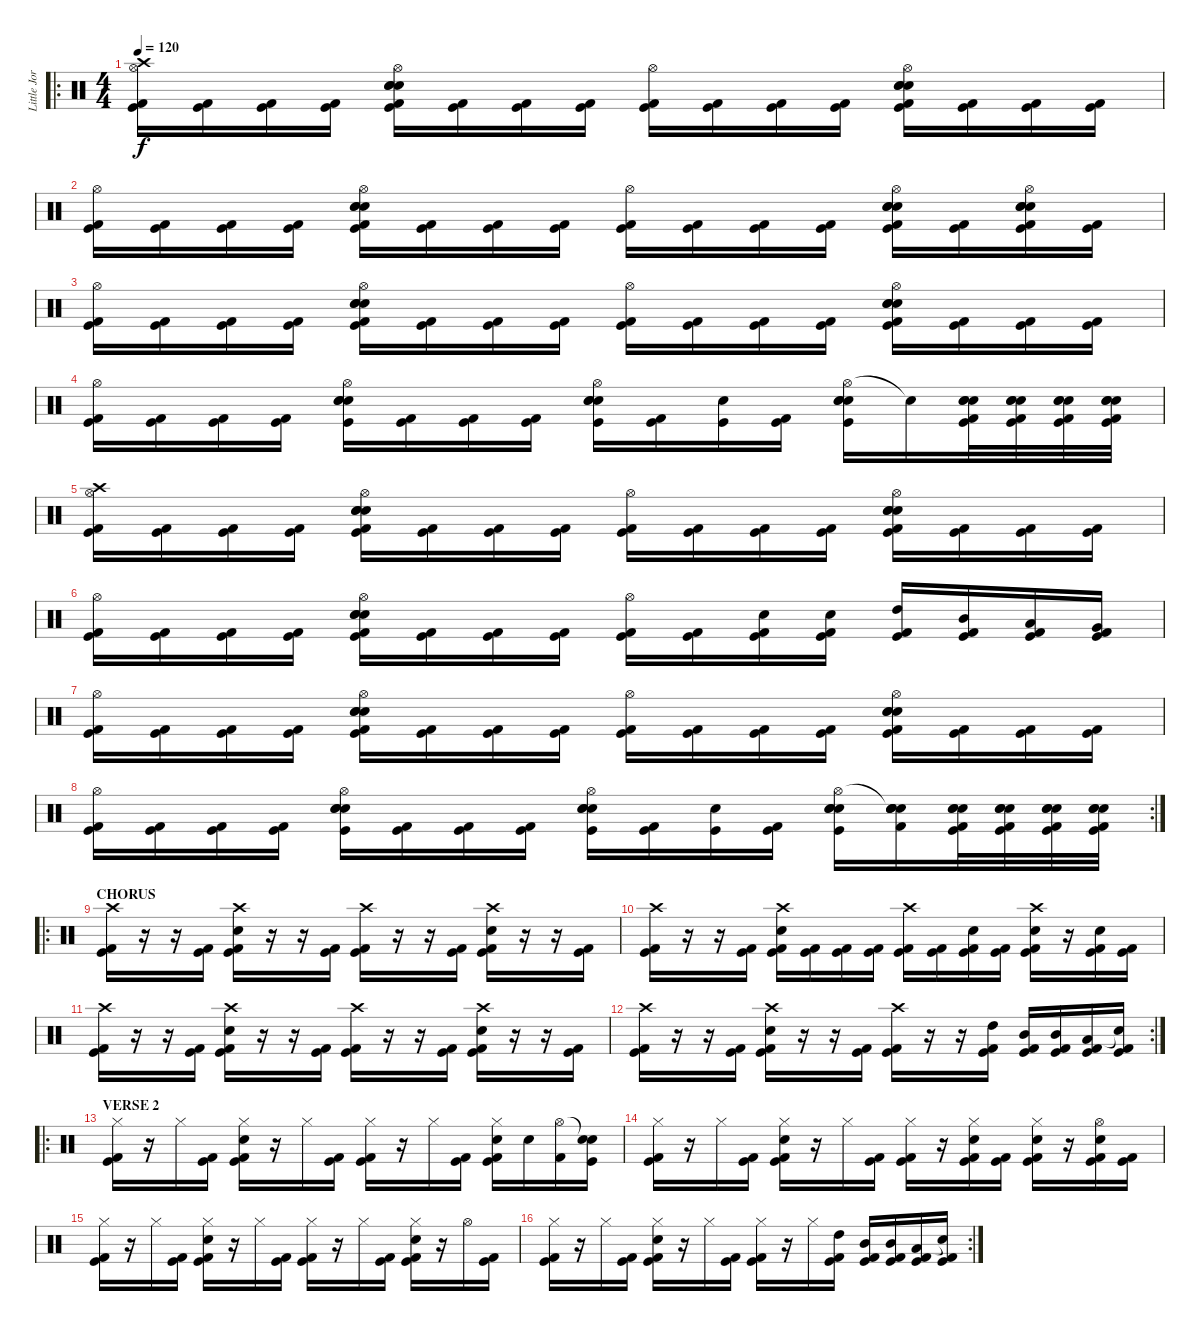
\track ("Little Jordison" "Little Jor") {instrument percussion}
\staff {score}
\articulation defaults
\ro
\ts (4 4)
\tempo 120
\clef neutral
\ks c
("Hi-Hat (open)" "Crash high (hit)" "Kick (hit)" "Kick (hit) 2").16{dy f} ("Kick (hit)" "Kick (hit) 2").16 ("Kick (hit)" "Kick (hit) 2").16 ("Kick (hit)" "Kick (hit) 2").16 ("Hi-Hat (open)" "Electric Snare (hit)" "Electric Snare (hit)" "Electric Snare (hit)" "Kick (hit)" "Kick (hit) 2").16 ("Kick (hit)" "Kick (hit) 2").16 ("Kick (hit)" "Kick (hit) 2").16 ("Kick (hit)" "Kick (hit) 2").16 ("Hi-Hat (open)" "Kick (hit)" "Kick (hit) 2").16 ("Kick (hit)" "Kick (hit) 2").16 ("Kick (hit)" "Kick (hit) 2").16 ("Kick (hit)" "Kick (hit) 2").16 ("Hi-Hat (open)" "Electric Snare (hit)" "Electric Snare (hit)" "Electric Snare (hit)" "Kick (hit)" "Kick (hit) 2").16 ("Kick (hit)" "Kick (hit) 2").16 ("Kick (hit)" "Kick (hit) 2").16 ("Kick (hit)" "Kick (hit) 2").16 |
("Hi-Hat (open)" "Kick (hit)" "Kick (hit) 2").16 ("Kick (hit)" "Kick (hit) 2").16 ("Kick (hit)" "Kick (hit) 2").16 ("Kick (hit)" "Kick (hit) 2").16 ("Hi-Hat (open)" "Electric Snare (hit)" "Electric Snare (hit)" "Electric Snare (hit)" "Kick (hit)" "Kick (hit) 2").16 ("Kick (hit)" "Kick (hit) 2").16 ("Kick (hit)" "Kick (hit) 2").16 ("Kick (hit)" "Kick (hit) 2").16 ("Hi-Hat (open)" "Kick (hit)" "Kick (hit) 2").16 ("Kick (hit)" "Kick (hit) 2").16 ("Kick (hit)" "Kick (hit) 2").16 ("Kick (hit)" "Kick (hit) 2").16 ("Hi-Hat (open)" "Electric Snare (hit)" "Electric Snare (hit)" "Electric Snare (hit)" "Kick (hit)" "Kick (hit) 2").16 ("Kick (hit)" "Kick (hit) 2").16 ("Hi-Hat (open)" "Electric Snare (hit)" "Electric Snare (hit)" "Electric Snare (hit)" "Kick (hit)" "Kick (hit) 2").16 ("Kick (hit)" "Kick (hit) 2").16 |
("Hi-Hat (open)" "Kick (hit)" "Kick (hit) 2").16 ("Kick (hit)" "Kick (hit) 2").16 ("Kick (hit)" "Kick (hit) 2").16 ("Kick (hit)" "Kick (hit) 2").16 ("Hi-Hat (open)" "Electric Snare (hit)" "Electric Snare (hit)" "Electric Snare (hit)" "Kick (hit)" "Kick (hit) 2").16 ("Kick (hit)" "Kick (hit) 2").16 ("Kick (hit)" "Kick (hit) 2").16 ("Kick (hit)" "Kick (hit) 2").16 ("Hi-Hat (open)" "Kick (hit)" "Kick (hit) 2").16 ("Kick (hit)" "Kick (hit) 2").16 ("Kick (hit)" "Kick (hit) 2").16 ("Kick (hit)" "Kick (hit) 2").16 ("Hi-Hat (open)" "Electric Snare (hit)" "Electric Snare (hit)" "Electric Snare (hit)" "Kick (hit)" "Kick (hit) 2").16 ("Kick (hit)" "Kick (hit) 2").16 ("Kick (hit)" "Kick (hit) 2").16 ("Kick (hit)" "Kick (hit) 2").16 |
("Hi-Hat (open)" "Kick (hit)" "Kick (hit) 2").16 ("Kick (hit)" "Kick (hit) 2").16 ("Kick (hit)" "Kick (hit) 2").16 ("Kick (hit)" "Kick (hit) 2").16 ("Hi-Hat (open)" "Electric Snare (hit)" "Electric Snare (hit)" "Kick (hit)" "Electric Snare (hit)").16 ("Kick (hit)" "Kick (hit) 2").16 ("Kick (hit)" "Kick (hit) 2").16 ("Kick (hit)" "Kick (hit) 2").16 ("Hi-Hat (open)" "Electric Snare (hit)" "Electric Snare (hit)" "Kick (hit)" "Electric Snare (hit)").16 ("Kick (hit)" "Kick (hit) 2").16 ("Kick (hit)" "Electric Snare (hit)").16 ("Kick (hit)" "Kick (hit) 2").16 ("Hi-Hat (open)" "Electric Snare (hit)" "Electric Snare (hit)" "Kick (hit)" "Electric Snare (hit)").16 "Snare (hit)"{t}.16 ("Electric Snare (hit)" "Electric Snare (hit)" "Kick (hit) 2" "Kick (hit)" "Electric Snare (hit)").32 ("Electric Snare (hit)" "Electric Snare (hit)" "Kick (hit) 2" "Kick (hit)" "Electric Snare (hit)").32 ("Electric Snare (hit)" "Electric Snare (hit)" "Kick (hit) 2" "Kick (hit)" "Electric Snare (hit)").32 ("Electric Snare (hit)" "Electric Snare (hit)" "Kick (hit) 2" "Kick (hit)" "Electric Snare (hit)").32 |
("Hi-Hat (open)" "Crash high (hit)" "Kick (hit)" "Kick (hit) 2").16 ("Kick (hit)" "Kick (hit) 2").16 ("Kick (hit)" "Kick (hit) 2").16 ("Kick (hit)" "Kick (hit) 2").16 ("Hi-Hat (open)" "Electric Snare (hit)" "Electric Snare (hit)" "Electric Snare (hit)" "Kick (hit)" "Kick (hit) 2").16 ("Kick (hit)" "Kick (hit) 2").16 ("Kick (hit)" "Kick (hit) 2").16 ("Kick (hit)" "Kick (hit) 2").16 ("Hi-Hat (open)" "Kick (hit)" "Kick (hit) 2").16 ("Kick (hit)" "Kick (hit) 2").16 ("Kick (hit)" "Kick (hit) 2").16 ("Kick (hit)" "Kick (hit) 2").16 ("Hi-Hat (open)" "Electric Snare (hit)" "Electric Snare (hit)" "Electric Snare (hit)" "Kick (hit)" "Kick (hit) 2").16 ("Kick (hit)" "Kick (hit) 2").16 ("Kick (hit)" "Kick (hit) 2").16 ("Kick (hit)" "Kick (hit) 2").16 |
("Hi-Hat (open)" "Kick (hit)" "Kick (hit) 2").16 ("Kick (hit)" "Kick (hit) 2").16 ("Kick (hit)" "Kick (hit) 2").16 ("Kick (hit)" "Kick (hit) 2").16 ("Hi-Hat (open)" "Electric Snare (hit)" "Electric Snare (hit)" "Electric Snare (hit)" "Kick (hit)" "Kick (hit) 2").16 ("Kick (hit)" "Kick (hit) 2").16 ("Kick (hit)" "Kick (hit) 2").16 ("Kick (hit)" "Kick (hit) 2").16 ("Hi-Hat (open)" "Kick (hit)" "Kick (hit) 2").16 ("Kick (hit)" "Kick (hit) 2").16 ("Electric Snare (hit)" "Kick (hit)" "Kick (hit) 2").16 ("Electric Snare (hit)" "Kick (hit)" "Kick (hit) 2").16 ("High Tom (hit)" "Kick (hit)" "Kick (hit) 2").16 ("Mid Tom (hit)" "Kick (hit)" "Kick (hit) 2").16 ("Low Tom (hit)" "Kick (hit)" "Kick (hit) 2").16 ("Very Low Tom (hit)" "Kick (hit)" "Kick (hit) 2").16 |
("Hi-Hat (open)" "Kick (hit)" "Kick (hit) 2").16 ("Kick (hit)" "Kick (hit) 2").16 ("Kick (hit)" "Kick (hit) 2").16 ("Kick (hit)" "Kick (hit) 2").16 ("Hi-Hat (open)" "Electric Snare (hit)" "Electric Snare (hit)" "Electric Snare (hit)" "Kick (hit)" "Kick (hit) 2").16 ("Kick (hit)" "Kick (hit) 2").16 ("Kick (hit)" "Kick (hit) 2").16 ("Kick (hit)" "Kick (hit) 2").16 ("Hi-Hat (open)" "Kick (hit)" "Kick (hit) 2").16 ("Kick (hit)" "Kick (hit) 2").16 ("Kick (hit)" "Kick (hit) 2").16 ("Kick (hit)" "Kick (hit) 2").16 ("Hi-Hat (open)" "Electric Snare (hit)" "Electric Snare (hit)" "Electric Snare (hit)" "Kick (hit)" "Kick (hit) 2").16 ("Kick (hit)" "Kick (hit) 2").16 ("Kick (hit)" "Kick (hit) 2").16 ("Kick (hit)" "Kick (hit) 2").16 |
\rc 2
("Hi-Hat (open)" "Kick (hit)" "Kick (hit) 2").16 ("Kick (hit)" "Kick (hit) 2").16 ("Kick (hit)" "Kick (hit) 2").16 ("Kick (hit)" "Kick (hit) 2").16 ("Hi-Hat (open)" "Electric Snare (hit)" "Electric Snare (hit)" "Kick (hit)" "Electric Snare (hit)").16 ("Kick (hit)" "Kick (hit) 2").16 ("Kick (hit)" "Kick (hit) 2").16 ("Kick (hit)" "Kick (hit) 2").16 ("Hi-Hat (open)" "Electric Snare (hit)" "Electric Snare (hit)" "Kick (hit)" "Electric Snare (hit)").16 ("Kick (hit)" "Kick (hit) 2").16 ("Kick (hit)" "Electric Snare (hit)").16 ("Kick (hit)" "Kick (hit) 2").16 ("Hi-Hat (open)" "Electric Snare (hit)" "Electric Snare (hit)" "Kick (hit)" "Electric Snare (hit)").16 ("Snare (hit)"{t} "Electric Snare (hit)" "Electric Snare (hit)" "Kick (hit) 2" "Electric Snare (hit)").16 ("Electric Snare (hit)" "Electric Snare (hit)" "Kick (hit) 2" "Kick (hit)" "Electric Snare (hit)").32 ("Electric Snare (hit)" "Electric Snare (hit)" "Kick (hit) 2" "Kick (hit)" "Electric Snare (hit)").32 ("Electric Snare (hit)" "Electric Snare (hit)" "Kick (hit) 2" "Kick (hit)" "Electric Snare (hit)").32 ("Electric Snare (hit)" "Electric Snare (hit)" "Kick (hit) 2" "Kick (hit)" "Electric Snare (hit)").32 |
\ro
\section ("" "CHORUS")
("Crash high (hit)" "Kick (hit)" "Kick (hit) 2").16 r.16 r.16 ("Kick (hit)" "Kick (hit) 2").16 ("Crash high (hit)" "Electric Snare (hit)" "Kick (hit)" "Kick (hit) 2").16 r.16 r.16 ("Kick (hit)" "Kick (hit) 2").16 ("Crash high (hit)" "Kick (hit)" "Kick (hit) 2").16 r.16 r.16 ("Kick (hit)" "Kick (hit) 2").16 ("Crash high (hit)" "Electric Snare (hit)" "Kick (hit)" "Kick (hit) 2").16 r.16 r.16 ("Kick (hit)" "Kick (hit) 2").16 |
("Crash high (hit)" "Kick (hit)" "Kick (hit) 2").16 r.16 r.16 ("Kick (hit)" "Kick (hit) 2").16 ("Crash high (hit)" "Electric Snare (hit)" "Kick (hit)" "Kick (hit) 2").16 ("Kick (hit)" "Kick (hit) 2").16 ("Kick (hit)" "Kick (hit) 2").16 ("Kick (hit)" "Kick (hit) 2").16 ("Crash high (hit)" "Kick (hit)" "Kick (hit) 2").16 ("Kick (hit)" "Kick (hit) 2").16 ("Electric Snare (hit)" "Kick (hit)" "Kick (hit) 2").16 ("Kick (hit)" "Kick (hit) 2").16 ("Crash high (hit)" "Electric Snare (hit)" "Kick (hit)" "Kick (hit) 2").16 r.16 ("Electric Snare (hit)" "Kick (hit)" "Kick (hit) 2").16 ("Kick (hit)" "Kick (hit) 2").16 |
("Crash high (hit)" "Kick (hit)" "Kick (hit) 2").16 r.16 r.16 ("Kick (hit)" "Kick (hit) 2").16 ("Crash high (hit)" "Electric Snare (hit)" "Kick (hit)" "Kick (hit) 2").16 r.16 r.16 ("Kick (hit)" "Kick (hit) 2").16 ("Crash high (hit)" "Kick (hit)" "Kick (hit) 2").16 r.16 r.16 ("Kick (hit)" "Kick (hit) 2").16 ("Crash high (hit)" "Electric Snare (hit)" "Kick (hit)" "Kick (hit) 2").16 r.16 r.16 ("Kick (hit)" "Kick (hit) 2").16 |
\rc 2
("Crash high (hit)" "Kick (hit)" "Kick (hit) 2").16 r.16 r.16 ("Kick (hit)" "Kick (hit) 2").16 ("Crash high (hit)" "Electric Snare (hit)" "Kick (hit)" "Kick (hit) 2").16 r.16 r.16 ("Kick (hit)" "Kick (hit) 2").16 ("Crash high (hit)" "Kick (hit)" "Kick (hit) 2").16 r.16 r.16 ("High Tom (hit)" "Kick (hit)" "Kick (hit) 2").16 ("Mid Tom (hit)" "Kick (hit)" "Kick (hit) 2").16 ("Mid Tom (hit)" "Kick (hit)" "Kick (hit) 2").16 ("Low Tom (hit)" "Kick (hit)" "Kick (hit) 2").16 ("Snare (hit)"{t} "Kick (hit)" "Kick (hit) 2").16 |
\ro
\section ("" "VERSE 2")
("Hi-Hat (closed)" "Kick (hit)" "Kick (hit) 2").16 r.16 "Hi-Hat (closed)".16 ("Kick (hit)" "Kick (hit) 2").16 ("Hi-Hat (closed)" "Electric Snare (hit)" "Kick (hit)" "Kick (hit) 2").16 r.16 "Hi-Hat (closed)".16 ("Kick (hit)" "Kick (hit) 2").16 ("Hi-Hat (closed)" "Kick (hit)" "Kick (hit) 2").16 r.16 "Hi-Hat (closed)".16 ("Kick (hit)" "Kick (hit) 2").16 ("Hi-Hat (closed)" "Electric Snare (hit)" "Kick (hit)" "Kick (hit) 2").16 "Electric Snare (hit)".16 ("Hi-Hat (open)" "Kick (hit) 2").16 ("Snare (hit)"{t} "Kick (hit)" "Electric Snare (hit)").16 |
("Hi-Hat (closed)" "Kick (hit)" "Kick (hit) 2").16 r.16 "Hi-Hat (closed)".16 ("Kick (hit)" "Kick (hit) 2").16 ("Hi-Hat (closed)" "Electric Snare (hit)" "Kick (hit)" "Kick (hit) 2").16 r.16 "Hi-Hat (closed)".16 ("Kick (hit)" "Kick (hit) 2").16 ("Hi-Hat (closed)" "Kick (hit)" "Kick (hit) 2").16 r.16 ("Hi-Hat (closed)" "Electric Snare (hit)" "Kick (hit)" "Kick (hit) 2").16 ("Kick (hit)" "Kick (hit) 2").16 ("Hi-Hat (closed)" "Electric Snare (hit)" "Kick (hit)" "Kick (hit) 2").16 r.16 ("Hi-Hat (open)" "Electric Snare (hit)" "Kick (hit)" "Kick (hit) 2").16 ("Kick (hit)" "Kick (hit) 2").16 |
("Hi-Hat (closed)" "Kick (hit)" "Kick (hit) 2").16 r.16 "Hi-Hat (closed)".16 ("Kick (hit)" "Kick (hit) 2").16 ("Hi-Hat (closed)" "Electric Snare (hit)" "Kick (hit)" "Kick (hit) 2").16 r.16 "Hi-Hat (closed)".16 ("Kick (hit)" "Kick (hit) 2").16 ("Hi-Hat (closed)" "Kick (hit)" "Kick (hit) 2").16 r.16 "Hi-Hat (closed)".16 ("Kick (hit)" "Kick (hit) 2").16 ("Hi-Hat (closed)" "Electric Snare (hit)" "Kick (hit)" "Kick (hit) 2").16 r.16 "Hi-Hat (open)".16 ("Kick (hit)" "Kick (hit) 2").16 |
\rc 2
("Hi-Hat (closed)" "Kick (hit)" "Kick (hit) 2").16 r.16 "Hi-Hat (closed)".16 ("Kick (hit)" "Kick (hit) 2").16 ("Hi-Hat (closed)" "Electric Snare (hit)" "Kick (hit)" "Kick (hit) 2").16 r.16 "Hi-Hat (closed)".16 ("Kick (hit)" "Kick (hit) 2").16 ("Hi-Hat (closed)" "Kick (hit)" "Kick (hit) 2").16 r.16 "Hi-Hat (closed)".16 ("High Tom (hit)" "Kick (hit)" "Kick (hit) 2").16 ("Mid Tom (hit)" "Kick (hit)" "Kick (hit) 2").16 ("Mid Tom (hit)" "Kick (hit)" "Kick (hit) 2").16 ("Low Tom (hit)" "Kick (hit)" "Kick (hit) 2").16 ("Snare (hit)"{t} "Kick (hit)" "Kick (hit) 2").16
